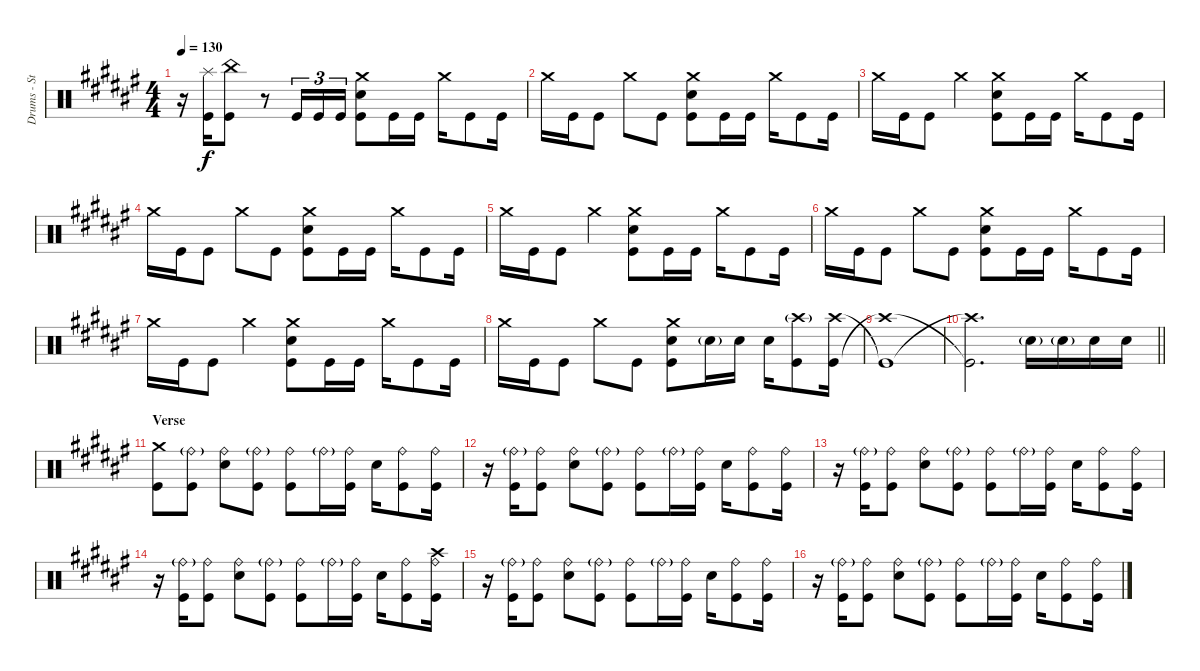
\track ("Drums - Stef Broks" "Drums - St") {instrument percussion}
\staff {score}
\articulation defaults
\ts (4 4)
\tempo 130
\clef neutral
\ks d#minor
r.16{dy f} ("Splash (hit)" "Kick (hit)").16 ("Kick (hit)" "China (hit)").8 r.8 "Kick (hit)".16{tu (3 2)} "Kick (hit)".16{tu (3 2)} "Kick (hit)".16{tu (3 2)} ("Snare (hit) 2" "Kick (hit)" "Crash medium (hit)").8 "Kick (hit)".16 "Kick (hit)".16 "Crash medium (hit)".16 "Kick (hit)".8 "Kick (hit)".16 |
"Crash medium (hit)".16 "Kick (hit)".16 "Kick (hit)".8 "Crash medium (hit)".8 "Kick (hit)".8 ("Kick (hit)" "Snare (hit) 2" "Crash medium (hit)").8 "Kick (hit)".16 "Kick (hit)".16 "Crash medium (hit)".16 "Kick (hit)".8 "Kick (hit)".16 |
"Crash medium (hit)".16 "Kick (hit)".16 "Kick (hit)".8 "Crash medium (hit)".4 ("Kick (hit)" "Snare (hit) 2" "Crash medium (hit)").8 "Kick (hit)".16 "Kick (hit)".16 "Crash medium (hit)".16 "Kick (hit)".8 "Kick (hit)".16 |
"Crash medium (hit)".16 "Kick (hit)".16 "Kick (hit)".8 "Crash medium (hit)".8 "Kick (hit)".8 ("Kick (hit)" "Snare (hit) 2" "Crash medium (hit)").8 "Kick (hit)".16 "Kick (hit)".16 "Crash medium (hit)".16 "Kick (hit)".8 "Kick (hit)".16 |
"Crash medium (hit)".16 "Kick (hit)".16 "Kick (hit)".8 "Crash medium (hit)".4 ("Kick (hit)" "Snare (hit) 2" "Crash medium (hit)").8 "Kick (hit)".16 "Kick (hit)".16 "Crash medium (hit)".16 "Kick (hit)".8 "Kick (hit)".16 |
"Crash medium (hit)".16 "Kick (hit)".16 "Kick (hit)".8 "Crash medium (hit)".8 "Kick (hit)".8 ("Kick (hit)" "Snare (hit) 2" "Crash medium (hit)").8 "Kick (hit)".16 "Kick (hit)".16 "Crash medium (hit)".16 "Kick (hit)".8 "Kick (hit)".16 |
"Crash medium (hit)".16 "Kick (hit)".16 "Kick (hit)".8 "Crash medium (hit)".4 ("Kick (hit)" "Snare (hit) 2" "Crash medium (hit)").8 "Kick (hit)".16 "Kick (hit)".16 "Crash medium (hit)".16 "Kick (hit)".8 "Kick (hit)".16 |
"Crash medium (hit)".16 "Kick (hit)".16 "Kick (hit)".8 "Crash medium (hit)".8 "Kick (hit)".8 ("Kick (hit)" "Snare (hit) 2" "Crash medium (hit)").8 "Snare (hit) 2"{g}.16 "Snare (hit) 2".16 "Snare (hit) 2".16 ("Kick (hit)" "Crash high (hit)"{g}).8 ("Kick (hit)" "Crash high (hit)").16 |
("Crash high (hit)"{t} "Kick (hit)"{t}).1 |
\barLineRight lightlight
("Kick (hit)"{t} "Crash high (hit)"{t}).2{d} "Snare (hit) 2"{g}.16 "Snare (hit) 2"{g}.16 "Snare (hit) 2".16 "Snare (hit) 2".16 |
\section ("" "Verse")
("Kick (hit)" "Crash medium (hit)").8 ("Kick (hit)" "Ride (bell)"{g}).8 ("Snare (hit) 2" "Ride (bell)").8 ("Kick (hit)" "Ride (bell)"{g}).8 ("Kick (hit)" "Ride (bell)").8 "Ride (bell)"{g}.16 ("Kick (hit)" "Ride (bell)").16 "Snare (hit) 2".16 ("Kick (hit)" "Ride (bell)").8 ("Ride (bell)" "Kick (hit)").16 |
r.16 ("Kick (hit)" "Ride (bell)"{g}).16 ("Kick (hit)" "Ride (bell)").8 ("Ride (bell)" "Snare (hit) 2").8 ("Ride (bell)"{g} "Kick (hit)").8 ("Ride (bell)" "Kick (hit)").8 "Ride (bell)"{g}.16 ("Ride (bell)" "Kick (hit)").16 "Snare (hit) 2".16 ("Kick (hit)" "Ride (bell)").8 ("Kick (hit)" "Ride (bell)").16 |
r.16 ("Kick (hit)" "Ride (bell)"{g}).16 ("Kick (hit)" "Ride (bell)").8 ("Ride (bell)" "Snare (hit) 2").8 ("Ride (bell)"{g} "Kick (hit)").8 ("Ride (bell)" "Kick (hit)").8 "Ride (bell)"{g}.16 ("Ride (bell)" "Kick (hit)").16 "Snare (hit) 2".16 ("Kick (hit)" "Ride (bell)").8 ("Kick (hit)" "Ride (bell)").16 |
r.16 ("Kick (hit)" "Ride (bell)"{g}).16 ("Kick (hit)" "Ride (bell)").8 ("Ride (bell)" "Snare (hit) 2").8 ("Ride (bell)"{g} "Kick (hit)").8 ("Ride (bell)" "Kick (hit)").8 "Ride (bell)"{g}.16 ("Ride (bell)" "Kick (hit)").16 "Snare (hit) 2".16 ("Kick (hit)" "Ride (bell)").8 ("Kick (hit)" "Ride (bell)" "Crash high (hit)").16 |
r.16 ("Kick (hit)" "Ride (bell)"{g}).16 ("Kick (hit)" "Ride (bell)").8 ("Ride (bell)" "Snare (hit) 2").8 ("Ride (bell)"{g} "Kick (hit)").8 ("Ride (bell)" "Kick (hit)").8 "Ride (bell)"{g}.16 ("Ride (bell)" "Kick (hit)").16 "Snare (hit) 2".16 ("Kick (hit)" "Ride (bell)").8 ("Kick (hit)" "Ride (bell)").16 |
r.16 ("Kick (hit)" "Ride (bell)"{g}).16 ("Kick (hit)" "Ride (bell)").8 ("Ride (bell)" "Snare (hit) 2").8 ("Ride (bell)"{g} "Kick (hit)").8 ("Ride (bell)" "Kick (hit)").8 "Ride (bell)"{g}.16 ("Ride (bell)" "Kick (hit)").16 "Snare (hit) 2".16 ("Kick (hit)" "Ride (bell)").8 ("Kick (hit)" "Ride (bell)").16
